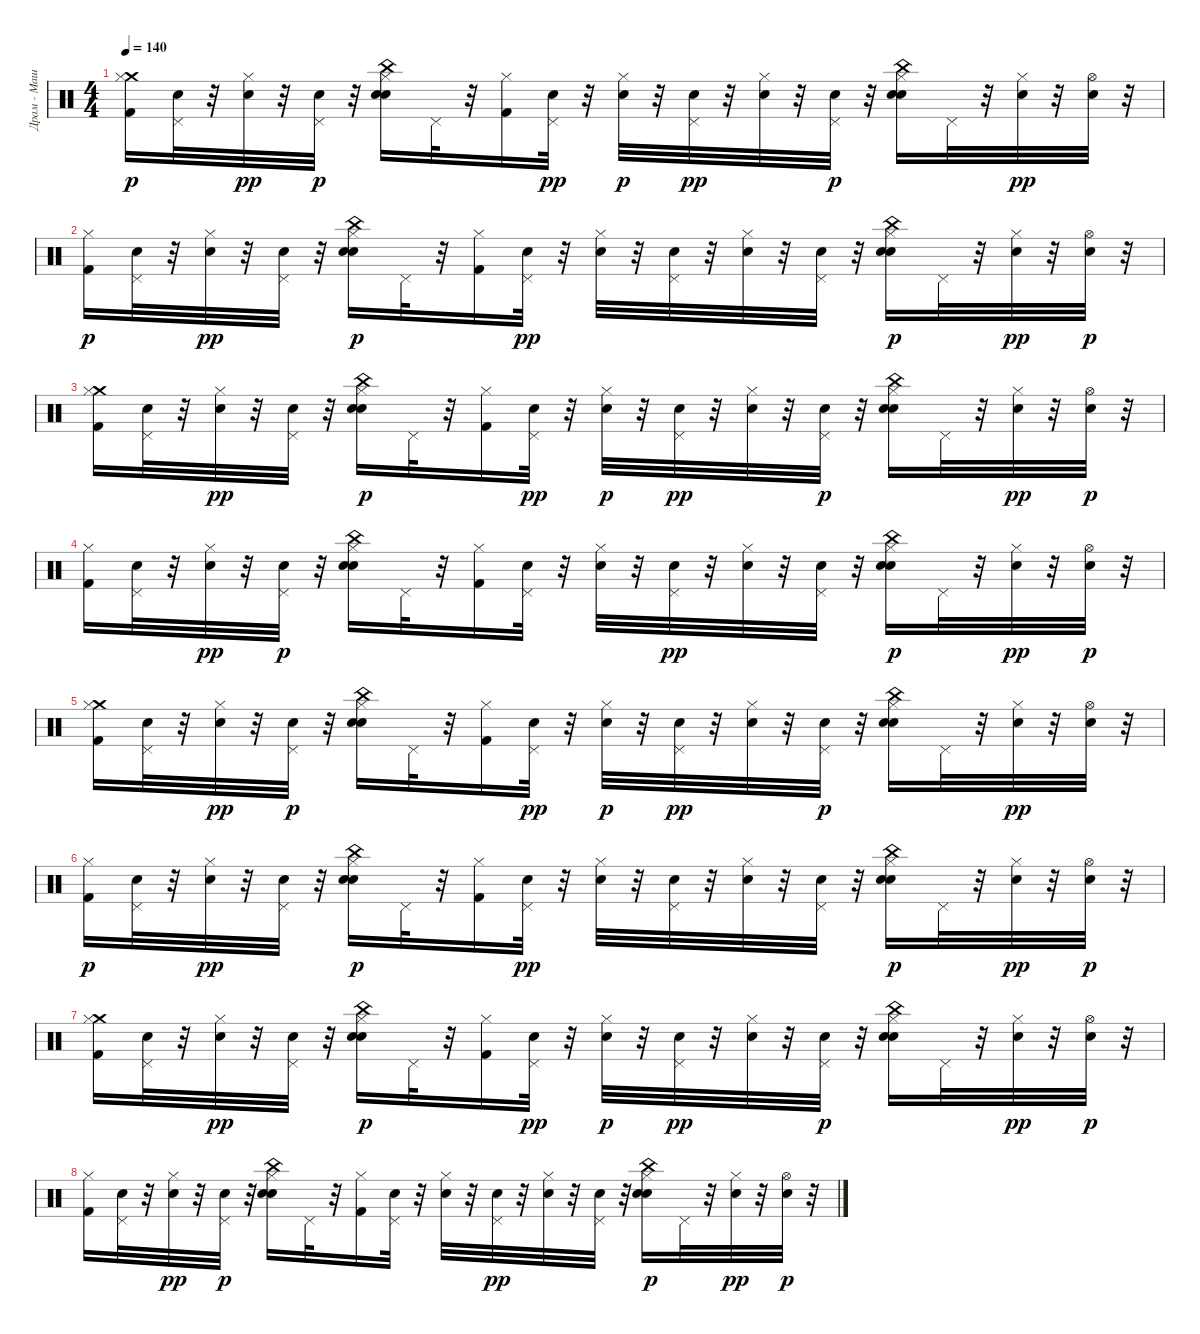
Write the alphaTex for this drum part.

\track ("Драм - Машина" "Драм - Маш") {instrument percussion}
\staff {score}
\articulation defaults
\ts (4 4)
\tempo 140
\clef neutral
\ks c
("Crash medium (hit)" "Kick (hit) 2" "Hi-Hat (closed)").16{dy p} ("Snare (hit) 2" "Pedal Hi-Hat (hit)").32 r.32 ("Hi-Hat (closed)" "Snare (hit) 2").32{dy pp} r.32 ("Snare (hit) 2" "Pedal Hi-Hat (hit)").32{dy p} r.32 ("Electric Snare (hit)" "China (hit)" "Hand Clap (hit)" "Hi-Hat (closed)").16 "Pedal Hi-Hat (hit)".32 r.32 ("Hi-Hat (closed)" "Kick (hit) 2").16 ("Pedal Hi-Hat (hit)" "Snare (hit) 2").32{dy pp} r.32 ("Snare (hit) 2" "Hi-Hat (closed)").32{dy p} r.32 ("Pedal Hi-Hat (hit)" "Snare (hit) 2").32{dy pp} r.32 ("Hi-Hat (closed)" "Snare (hit) 2").32 r.32 ("Snare (hit) 2" "Pedal Hi-Hat (hit)").32{dy p} r.32 ("Electric Snare (hit)" "Hand Clap (hit)" "China (hit)" "Hi-Hat (closed)").16 "Pedal Hi-Hat (hit)".32 r.32 ("Hi-Hat (closed)" "Snare (hit) 2").32{dy pp} r.32 ("Hi-Hat (open)" "Snare (hit) 2").32 r.32 |
("Hi-Hat (closed)" "Kick (hit) 2").16{dy p} ("Snare (hit) 2" "Pedal Hi-Hat (hit)").32 r.32 ("Hi-Hat (closed)" "Snare (hit) 2").32{dy pp} r.32 ("Pedal Hi-Hat (hit)" "Snare (hit) 2").32 r.32 ("Hi-Hat (closed)" "Electric Snare (hit)" "Hand Clap (hit)" "China (hit)").16{dy p} "Pedal Hi-Hat (hit)".32 r.32 ("Hi-Hat (closed)" "Kick (hit) 2").16 ("Pedal Hi-Hat (hit)" "Snare (hit) 2").32{dy pp} r.32 ("Hi-Hat (closed)" "Snare (hit) 2").32 r.32 ("Pedal Hi-Hat (hit)" "Snare (hit) 2").32 r.32 ("Hi-Hat (closed)" "Snare (hit) 2").32 r.32 ("Pedal Hi-Hat (hit)" "Snare (hit) 2").32 r.32 ("Hi-Hat (closed)" "Electric Snare (hit)" "Hand Clap (hit)" "China (hit)").16{dy p} "Pedal Hi-Hat (hit)".32 r.32 ("Hi-Hat (closed)" "Snare (hit) 2").32{dy pp} r.32 ("Snare (hit) 2" "Hi-Hat (open)").32{dy p} r.32 |
("Crash medium (hit)" "Kick (hit) 2" "Hi-Hat (closed)").16 ("Snare (hit) 2" "Pedal Hi-Hat (hit)").32 r.32 ("Hi-Hat (closed)" "Snare (hit) 2").32{dy pp} r.32 ("Pedal Hi-Hat (hit)" "Snare (hit) 2").32 r.32 ("Hi-Hat (closed)" "Electric Snare (hit)" "Hand Clap (hit)" "China (hit)").16{dy p} "Pedal Hi-Hat (hit)".32 r.32 ("Hi-Hat (closed)" "Kick (hit) 2").16 ("Pedal Hi-Hat (hit)" "Snare (hit) 2").32{dy pp} r.32 ("Snare (hit) 2" "Hi-Hat (closed)").32{dy p} r.32 ("Pedal Hi-Hat (hit)" "Snare (hit) 2").32{dy pp} r.32 ("Hi-Hat (closed)" "Snare (hit) 2").32 r.32 ("Snare (hit) 2" "Pedal Hi-Hat (hit)").32{dy p} r.32 ("Electric Snare (hit)" "China (hit)" "Hand Clap (hit)" "Hi-Hat (closed)").16 "Pedal Hi-Hat (hit)".32 r.32 ("Hi-Hat (closed)" "Snare (hit) 2").32{dy pp} r.32 ("Snare (hit) 2" "Hi-Hat (open)").32{dy p} r.32 |
("Kick (hit) 2" "Hi-Hat (closed)").16 ("Snare (hit) 2" "Pedal Hi-Hat (hit)").32 r.32 ("Hi-Hat (closed)" "Snare (hit) 2").32{dy pp} r.32 ("Snare (hit) 2" "Pedal Hi-Hat (hit)").32{dy p} r.32 ("Electric Snare (hit)" "Hand Clap (hit)" "China (hit)" "Hi-Hat (closed)").16 "Pedal Hi-Hat (hit)".32 r.32 ("Hi-Hat (closed)" "Kick (hit) 2").16 ("Snare (hit) 2" "Pedal Hi-Hat (hit)").32 r.32 ("Snare (hit) 2" "Hi-Hat (closed)").32 r.32 ("Pedal Hi-Hat (hit)" "Snare (hit) 2").32{dy pp} r.32 ("Hi-Hat (closed)" "Snare (hit) 2").32 r.32 ("Pedal Hi-Hat (hit)" "Snare (hit) 2").32 r.32 ("Hi-Hat (closed)" "Electric Snare (hit)" "Hand Clap (hit)" "China (hit)").16{dy p} "Pedal Hi-Hat (hit)".32 r.32 ("Hi-Hat (closed)" "Snare (hit) 2").32{dy pp} r.32 ("Snare (hit) 2" "Hi-Hat (open)").32{dy p} r.32 |
("Crash medium (hit)" "Kick (hit) 2" "Hi-Hat (closed)").16 ("Snare (hit) 2" "Pedal Hi-Hat (hit)").32 r.32 ("Hi-Hat (closed)" "Snare (hit) 2").32{dy pp} r.32 ("Snare (hit) 2" "Pedal Hi-Hat (hit)").32{dy p} r.32 ("Electric Snare (hit)" "China (hit)" "Hand Clap (hit)" "Hi-Hat (closed)").16 "Pedal Hi-Hat (hit)".32 r.32 ("Hi-Hat (closed)" "Kick (hit) 2").16 ("Pedal Hi-Hat (hit)" "Snare (hit) 2").32{dy pp} r.32 ("Snare (hit) 2" "Hi-Hat (closed)").32{dy p} r.32 ("Pedal Hi-Hat (hit)" "Snare (hit) 2").32{dy pp} r.32 ("Hi-Hat (closed)" "Snare (hit) 2").32 r.32 ("Snare (hit) 2" "Pedal Hi-Hat (hit)").32{dy p} r.32 ("Electric Snare (hit)" "Hand Clap (hit)" "China (hit)" "Hi-Hat (closed)").16 "Pedal Hi-Hat (hit)".32 r.32 ("Hi-Hat (closed)" "Snare (hit) 2").32{dy pp} r.32 ("Hi-Hat (open)" "Snare (hit) 2").32 r.32 |
("Hi-Hat (closed)" "Kick (hit) 2").16{dy p} ("Snare (hit) 2" "Pedal Hi-Hat (hit)").32 r.32 ("Hi-Hat (closed)" "Snare (hit) 2").32{dy pp} r.32 ("Pedal Hi-Hat (hit)" "Snare (hit) 2").32 r.32 ("Hi-Hat (closed)" "Electric Snare (hit)" "Hand Clap (hit)" "China (hit)").16{dy p} "Pedal Hi-Hat (hit)".32 r.32 ("Hi-Hat (closed)" "Kick (hit) 2").16 ("Pedal Hi-Hat (hit)" "Snare (hit) 2").32{dy pp} r.32 ("Hi-Hat (closed)" "Snare (hit) 2").32 r.32 ("Pedal Hi-Hat (hit)" "Snare (hit) 2").32 r.32 ("Hi-Hat (closed)" "Snare (hit) 2").32 r.32 ("Pedal Hi-Hat (hit)" "Snare (hit) 2").32 r.32 ("Hi-Hat (closed)" "Electric Snare (hit)" "Hand Clap (hit)" "China (hit)").16{dy p} "Pedal Hi-Hat (hit)".32 r.32 ("Hi-Hat (closed)" "Snare (hit) 2").32{dy pp} r.32 ("Snare (hit) 2" "Hi-Hat (open)").32{dy p} r.32 |
("Crash medium (hit)" "Kick (hit) 2" "Hi-Hat (closed)").16 ("Snare (hit) 2" "Pedal Hi-Hat (hit)").32 r.32 ("Hi-Hat (closed)" "Snare (hit) 2").32{dy pp} r.32 ("Pedal Hi-Hat (hit)" "Snare (hit) 2").32 r.32 ("Hi-Hat (closed)" "Electric Snare (hit)" "Hand Clap (hit)" "China (hit)").16{dy p} "Pedal Hi-Hat (hit)".32 r.32 ("Hi-Hat (closed)" "Kick (hit) 2").16 ("Pedal Hi-Hat (hit)" "Snare (hit) 2").32{dy pp} r.32 ("Snare (hit) 2" "Hi-Hat (closed)").32{dy p} r.32 ("Pedal Hi-Hat (hit)" "Snare (hit) 2").32{dy pp} r.32 ("Hi-Hat (closed)" "Snare (hit) 2").32 r.32 ("Snare (hit) 2" "Pedal Hi-Hat (hit)").32{dy p} r.32 ("Electric Snare (hit)" "China (hit)" "Hand Clap (hit)" "Hi-Hat (closed)").16 "Pedal Hi-Hat (hit)".32 r.32 ("Hi-Hat (closed)" "Snare (hit) 2").32{dy pp} r.32 ("Snare (hit) 2" "Hi-Hat (open)").32{dy p} r.32 |
("Kick (hit) 2" "Hi-Hat (closed)").16 ("Snare (hit) 2" "Pedal Hi-Hat (hit)").32 r.32 ("Hi-Hat (closed)" "Snare (hit) 2").32{dy pp} r.32 ("Snare (hit) 2" "Pedal Hi-Hat (hit)").32{dy p} r.32 ("Electric Snare (hit)" "Hand Clap (hit)" "China (hit)" "Hi-Hat (closed)").16 "Pedal Hi-Hat (hit)".32 r.32 ("Hi-Hat (closed)" "Kick (hit) 2").16 ("Snare (hit) 2" "Pedal Hi-Hat (hit)").32 r.32 ("Snare (hit) 2" "Hi-Hat (closed)").32 r.32 ("Pedal Hi-Hat (hit)" "Snare (hit) 2").32{dy pp} r.32 ("Hi-Hat (closed)" "Snare (hit) 2").32 r.32 ("Pedal Hi-Hat (hit)" "Snare (hit) 2").32 r.32 ("Hi-Hat (closed)" "Electric Snare (hit)" "Hand Clap (hit)" "China (hit)").16{dy p} "Pedal Hi-Hat (hit)".32 r.32 ("Hi-Hat (closed)" "Snare (hit) 2").32{dy pp} r.32 ("Snare (hit) 2" "Hi-Hat (open)").32{dy p} r.32
